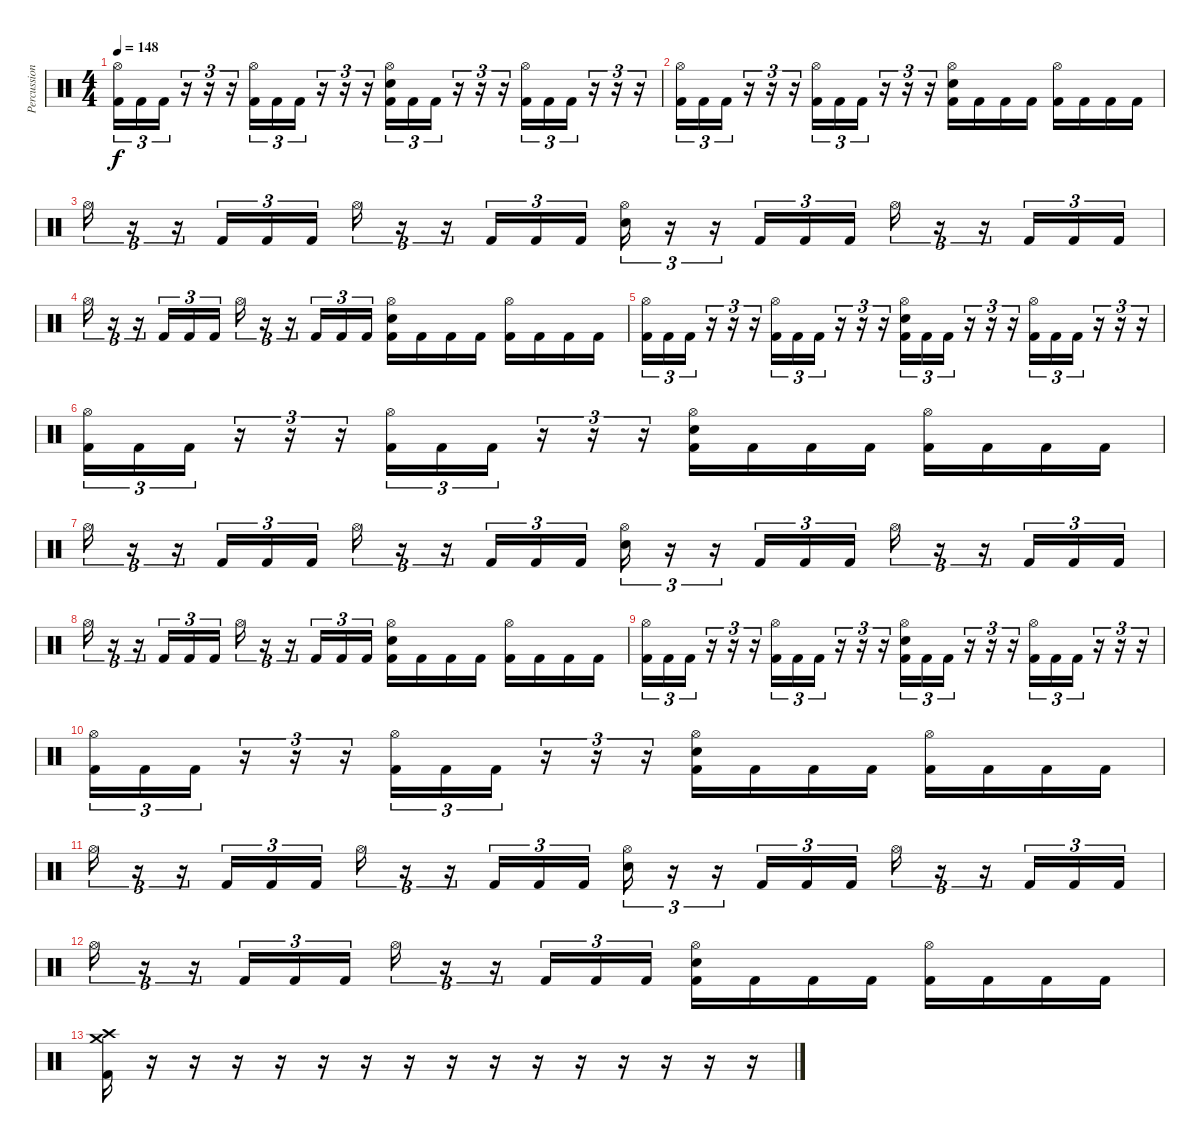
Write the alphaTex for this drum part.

\track ("Percussion" "Percussion") {instrument percussion}
\staff {score}
\articulation defaults
\ts (4 4)
\tempo 148
\clef neutral
\ks c
("Hi-Hat (open)" "Kick (hit) 2").16{tu (3 2) dy f} "Kick (hit) 2".16{tu (3 2)} "Kick (hit) 2".16{tu (3 2)} r.16{tu (3 2)} r.16{tu (3 2)} r.16{tu (3 2)} ("Hi-Hat (open)" "Kick (hit) 2").16{tu (3 2)} "Kick (hit) 2".16{tu (3 2)} "Kick (hit) 2".16{tu (3 2)} r.16{tu (3 2)} r.16{tu (3 2)} r.16{tu (3 2)} ("Hi-Hat (open)" "Electric Snare (hit)" "Kick (hit) 2").16{tu (3 2)} "Kick (hit) 2".16{tu (3 2)} "Kick (hit) 2".16{tu (3 2)} r.16{tu (3 2)} r.16{tu (3 2)} r.16{tu (3 2)} ("Hi-Hat (open)" "Kick (hit) 2").16{tu (3 2)} "Kick (hit) 2".16{tu (3 2)} "Kick (hit) 2".16{tu (3 2)} r.16{tu (3 2)} r.16{tu (3 2)} r.16{tu (3 2)} |
("Hi-Hat (open)" "Kick (hit) 2").16{tu (3 2)} "Kick (hit) 2".16{tu (3 2)} "Kick (hit) 2".16{tu (3 2)} r.16{tu (3 2)} r.16{tu (3 2)} r.16{tu (3 2)} ("Hi-Hat (open)" "Kick (hit) 2").16{tu (3 2)} "Kick (hit) 2".16{tu (3 2)} "Kick (hit) 2".16{tu (3 2)} r.16{tu (3 2)} r.16{tu (3 2)} r.16{tu (3 2)} ("Hi-Hat (open)" "Electric Snare (hit)" "Kick (hit) 2").16 "Kick (hit) 2".16 "Kick (hit) 2".16 "Kick (hit) 2".16 ("Hi-Hat (open)" "Kick (hit) 2").16 "Kick (hit) 2".16 "Kick (hit) 2".16 "Kick (hit) 2".16 |
"Hi-Hat (open)".16{tu (3 2)} r.16{tu (3 2)} r.16{tu (3 2)} "Kick (hit) 2".16{tu (3 2)} "Kick (hit) 2".16{tu (3 2)} "Kick (hit) 2".16{tu (3 2)} "Hi-Hat (open)".16{tu (3 2)} r.16{tu (3 2)} r.16{tu (3 2)} "Kick (hit) 2".16{tu (3 2)} "Kick (hit) 2".16{tu (3 2)} "Kick (hit) 2".16{tu (3 2)} ("Hi-Hat (open)" "Electric Snare (hit)").16{tu (3 2)} r.16{tu (3 2)} r.16{tu (3 2)} "Kick (hit) 2".16{tu (3 2)} "Kick (hit) 2".16{tu (3 2)} "Kick (hit) 2".16{tu (3 2)} "Hi-Hat (open)".16{tu (3 2)} r.16{tu (3 2)} r.16{tu (3 2)} "Kick (hit) 2".16{tu (3 2)} "Kick (hit) 2".16{tu (3 2)} "Kick (hit) 2".16{tu (3 2)} |
"Hi-Hat (open)".16{tu (3 2)} r.16{tu (3 2)} r.16{tu (3 2)} "Kick (hit) 2".16{tu (3 2)} "Kick (hit) 2".16{tu (3 2)} "Kick (hit) 2".16{tu (3 2)} "Hi-Hat (open)".16{tu (3 2)} r.16{tu (3 2)} r.16{tu (3 2)} "Kick (hit) 2".16{tu (3 2)} "Kick (hit) 2".16{tu (3 2)} "Kick (hit) 2".16{tu (3 2)} ("Hi-Hat (open)" "Electric Snare (hit)" "Kick (hit) 2").16 "Kick (hit) 2".16 "Kick (hit) 2".16 "Kick (hit) 2".16 ("Hi-Hat (open)" "Kick (hit) 2").16 "Kick (hit) 2".16 "Kick (hit) 2".16 "Kick (hit) 2".16 |
("Hi-Hat (open)" "Kick (hit) 2").16{tu (3 2)} "Kick (hit) 2".16{tu (3 2)} "Kick (hit) 2".16{tu (3 2)} r.16{tu (3 2)} r.16{tu (3 2)} r.16{tu (3 2)} ("Hi-Hat (open)" "Kick (hit) 2").16{tu (3 2)} "Kick (hit) 2".16{tu (3 2)} "Kick (hit) 2".16{tu (3 2)} r.16{tu (3 2)} r.16{tu (3 2)} r.16{tu (3 2)} ("Hi-Hat (open)" "Electric Snare (hit)" "Kick (hit) 2").16{tu (3 2)} "Kick (hit) 2".16{tu (3 2)} "Kick (hit) 2".16{tu (3 2)} r.16{tu (3 2)} r.16{tu (3 2)} r.16{tu (3 2)} ("Hi-Hat (open)" "Kick (hit) 2").16{tu (3 2)} "Kick (hit) 2".16{tu (3 2)} "Kick (hit) 2".16{tu (3 2)} r.16{tu (3 2)} r.16{tu (3 2)} r.16{tu (3 2)} |
("Hi-Hat (open)" "Kick (hit) 2").16{tu (3 2)} "Kick (hit) 2".16{tu (3 2)} "Kick (hit) 2".16{tu (3 2)} r.16{tu (3 2)} r.16{tu (3 2)} r.16{tu (3 2)} ("Hi-Hat (open)" "Kick (hit) 2").16{tu (3 2)} "Kick (hit) 2".16{tu (3 2)} "Kick (hit) 2".16{tu (3 2)} r.16{tu (3 2)} r.16{tu (3 2)} r.16{tu (3 2)} ("Hi-Hat (open)" "Electric Snare (hit)" "Kick (hit) 2").16 "Kick (hit) 2".16 "Kick (hit) 2".16 "Kick (hit) 2".16 ("Hi-Hat (open)" "Kick (hit) 2").16 "Kick (hit) 2".16 "Kick (hit) 2".16 "Kick (hit) 2".16 |
"Hi-Hat (open)".16{tu (3 2)} r.16{tu (3 2)} r.16{tu (3 2)} "Kick (hit) 2".16{tu (3 2)} "Kick (hit) 2".16{tu (3 2)} "Kick (hit) 2".16{tu (3 2)} "Hi-Hat (open)".16{tu (3 2)} r.16{tu (3 2)} r.16{tu (3 2)} "Kick (hit) 2".16{tu (3 2)} "Kick (hit) 2".16{tu (3 2)} "Kick (hit) 2".16{tu (3 2)} ("Hi-Hat (open)" "Electric Snare (hit)").16{tu (3 2)} r.16{tu (3 2)} r.16{tu (3 2)} "Kick (hit) 2".16{tu (3 2)} "Kick (hit) 2".16{tu (3 2)} "Kick (hit) 2".16{tu (3 2)} "Hi-Hat (open)".16{tu (3 2)} r.16{tu (3 2)} r.16{tu (3 2)} "Kick (hit) 2".16{tu (3 2)} "Kick (hit) 2".16{tu (3 2)} "Kick (hit) 2".16{tu (3 2)} |
"Hi-Hat (open)".16{tu (3 2)} r.16{tu (3 2)} r.16{tu (3 2)} "Kick (hit) 2".16{tu (3 2)} "Kick (hit) 2".16{tu (3 2)} "Kick (hit) 2".16{tu (3 2)} "Hi-Hat (open)".16{tu (3 2)} r.16{tu (3 2)} r.16{tu (3 2)} "Kick (hit) 2".16{tu (3 2)} "Kick (hit) 2".16{tu (3 2)} "Kick (hit) 2".16{tu (3 2)} ("Hi-Hat (open)" "Electric Snare (hit)" "Kick (hit) 2").16 "Kick (hit) 2".16 "Kick (hit) 2".16 "Kick (hit) 2".16 ("Hi-Hat (open)" "Kick (hit) 2").16 "Kick (hit) 2".16 "Kick (hit) 2".16 "Kick (hit) 2".16 |
("Hi-Hat (open)" "Kick (hit) 2").16{tu (3 2)} "Kick (hit) 2".16{tu (3 2)} "Kick (hit) 2".16{tu (3 2)} r.16{tu (3 2)} r.16{tu (3 2)} r.16{tu (3 2)} ("Hi-Hat (open)" "Kick (hit) 2").16{tu (3 2)} "Kick (hit) 2".16{tu (3 2)} "Kick (hit) 2".16{tu (3 2)} r.16{tu (3 2)} r.16{tu (3 2)} r.16{tu (3 2)} ("Hi-Hat (open)" "Electric Snare (hit)" "Kick (hit) 2").16{tu (3 2)} "Kick (hit) 2".16{tu (3 2)} "Kick (hit) 2".16{tu (3 2)} r.16{tu (3 2)} r.16{tu (3 2)} r.16{tu (3 2)} ("Hi-Hat (open)" "Kick (hit) 2").16{tu (3 2)} "Kick (hit) 2".16{tu (3 2)} "Kick (hit) 2".16{tu (3 2)} r.16{tu (3 2)} r.16{tu (3 2)} r.16{tu (3 2)} |
("Hi-Hat (open)" "Kick (hit) 2").16{tu (3 2)} "Kick (hit) 2".16{tu (3 2)} "Kick (hit) 2".16{tu (3 2)} r.16{tu (3 2)} r.16{tu (3 2)} r.16{tu (3 2)} ("Hi-Hat (open)" "Kick (hit) 2").16{tu (3 2)} "Kick (hit) 2".16{tu (3 2)} "Kick (hit) 2".16{tu (3 2)} r.16{tu (3 2)} r.16{tu (3 2)} r.16{tu (3 2)} ("Hi-Hat (open)" "Electric Snare (hit)" "Kick (hit) 2").16 "Kick (hit) 2".16 "Kick (hit) 2".16 "Kick (hit) 2".16 ("Hi-Hat (open)" "Kick (hit) 2").16 "Kick (hit) 2".16 "Kick (hit) 2".16 "Kick (hit) 2".16 |
"Hi-Hat (open)".16{tu (3 2)} r.16{tu (3 2)} r.16{tu (3 2)} "Kick (hit) 2".16{tu (3 2)} "Kick (hit) 2".16{tu (3 2)} "Kick (hit) 2".16{tu (3 2)} "Hi-Hat (open)".16{tu (3 2)} r.16{tu (3 2)} r.16{tu (3 2)} "Kick (hit) 2".16{tu (3 2)} "Kick (hit) 2".16{tu (3 2)} "Kick (hit) 2".16{tu (3 2)} ("Hi-Hat (open)" "Electric Snare (hit)").16{tu (3 2)} r.16{tu (3 2)} r.16{tu (3 2)} "Kick (hit) 2".16{tu (3 2)} "Kick (hit) 2".16{tu (3 2)} "Kick (hit) 2".16{tu (3 2)} "Hi-Hat (open)".16{tu (3 2)} r.16{tu (3 2)} r.16{tu (3 2)} "Kick (hit) 2".16{tu (3 2)} "Kick (hit) 2".16{tu (3 2)} "Kick (hit) 2".16{tu (3 2)} |
"Hi-Hat (open)".16{tu (3 2)} r.16{tu (3 2)} r.16{tu (3 2)} "Kick (hit) 2".16{tu (3 2)} "Kick (hit) 2".16{tu (3 2)} "Kick (hit) 2".16{tu (3 2)} "Hi-Hat (open)".16{tu (3 2)} r.16{tu (3 2)} r.16{tu (3 2)} "Kick (hit) 2".16{tu (3 2)} "Kick (hit) 2".16{tu (3 2)} "Kick (hit) 2".16{tu (3 2)} ("Hi-Hat (open)" "Electric Snare (hit)" "Kick (hit) 2").16 "Kick (hit) 2".16 "Kick (hit) 2".16 "Kick (hit) 2".16 ("Hi-Hat (open)" "Kick (hit) 2").16 "Kick (hit) 2".16 "Kick (hit) 2".16 "Kick (hit) 2".16 |
("Crash medium (hit)" "Crash high (hit)" "Kick (hit) 2").16 r.16 r.16 r.16 r.16 r.16 r.16 r.16 r.16 r.16 r.16 r.16 r.16 r.16 r.16 r.16
